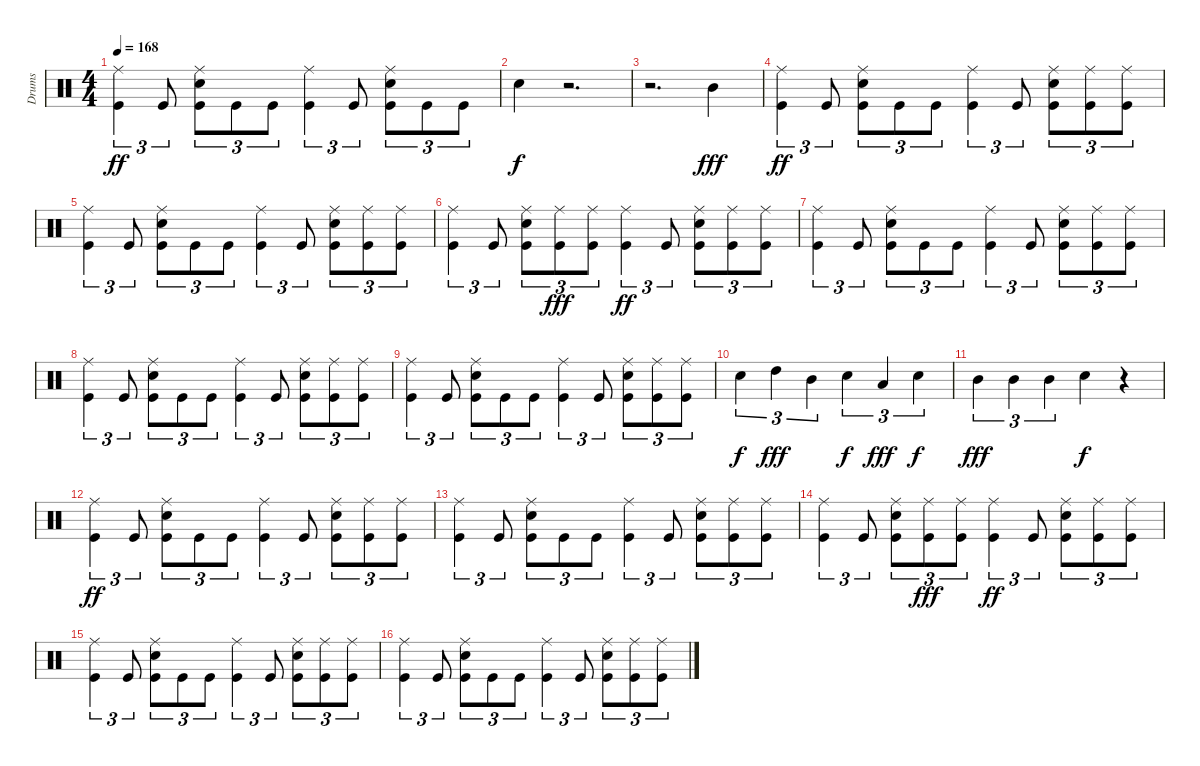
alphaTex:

\track ("Drums" "Drums") {instrument percussion}
\staff {score}
\articulation defaults
\ts (4 4)
\tempo 168
\clef neutral
\ks c
("Ride (middle)" "Kick (hit)").4{tu (3 2) dy ff} "Kick (hit)".8{tu (3 2)} ("Ride (middle)" "Electric Snare (hit)" "Kick (hit)").8{tu (3 2)} "Kick (hit)".8{tu (3 2)} "Kick (hit)".8{tu (3 2)} ("Ride (middle)" "Kick (hit)").4{tu (3 2)} "Kick (hit)".8{tu (3 2)} ("Ride (middle)" "Electric Snare (hit)" "Kick (hit)").8{tu (3 2)} "Kick (hit)".8{tu (3 2)} "Kick (hit)".8{tu (3 2)} |
"Electric Snare (hit)".4{dy f} r.2{d} |
r.2{d} "Mid Tom (hit)".4{dy fff} |
("Ride (middle)" "Kick (hit)").4{tu (3 2) dy ff} "Kick (hit)".8{tu (3 2)} ("Ride (middle)" "Electric Snare (hit)" "Kick (hit)").8{tu (3 2)} "Kick (hit)".8{tu (3 2)} "Kick (hit)".8{tu (3 2)} ("Ride (middle)" "Kick (hit)").4{tu (3 2)} "Kick (hit)".8{tu (3 2)} ("Ride (middle)" "Electric Snare (hit)" "Kick (hit)").8{tu (3 2)} ("Ride (middle)" "Kick (hit)").8{tu (3 2)} ("Ride (middle)" "Kick (hit)").8{tu (3 2)} |
("Ride (middle)" "Kick (hit)").4{tu (3 2)} "Kick (hit)".8{tu (3 2)} ("Ride (middle)" "Electric Snare (hit)" "Kick (hit)").8{tu (3 2)} "Kick (hit)".8{tu (3 2)} "Kick (hit)".8{tu (3 2)} ("Ride (middle)" "Kick (hit)").4{tu (3 2)} "Kick (hit)".8{tu (3 2)} ("Ride (middle)" "Electric Snare (hit)" "Kick (hit)").8{tu (3 2)} ("Ride (middle)" "Kick (hit)").8{tu (3 2)} ("Ride (middle)" "Kick (hit)").8{tu (3 2)} |
("Ride (middle)" "Kick (hit)").4{tu (3 2)} "Kick (hit)".8{tu (3 2)} ("Ride (middle)" "Electric Snare (hit)" "Kick (hit)").8{tu (3 2)} ("Kick (hit)" "Ride (middle)").8{tu (3 2) dy fff} ("Kick (hit)" "Ride (middle)").8{tu (3 2)} ("Ride (middle)" "Kick (hit)").4{tu (3 2) dy ff} "Kick (hit)".8{tu (3 2)} ("Ride (middle)" "Electric Snare (hit)" "Kick (hit)").8{tu (3 2)} ("Ride (middle)" "Kick (hit)").8{tu (3 2)} ("Ride (middle)" "Kick (hit)").8{tu (3 2)} |
("Ride (middle)" "Kick (hit)").4{tu (3 2)} "Kick (hit)".8{tu (3 2)} ("Ride (middle)" "Electric Snare (hit)" "Kick (hit)").8{tu (3 2)} "Kick (hit)".8{tu (3 2)} "Kick (hit)".8{tu (3 2)} ("Ride (middle)" "Kick (hit)").4{tu (3 2)} "Kick (hit)".8{tu (3 2)} ("Ride (middle)" "Electric Snare (hit)" "Kick (hit)").8{tu (3 2)} ("Ride (middle)" "Kick (hit)").8{tu (3 2)} ("Ride (middle)" "Kick (hit)").8{tu (3 2)} |
("Ride (middle)" "Kick (hit)").4{tu (3 2)} "Kick (hit)".8{tu (3 2)} ("Ride (middle)" "Electric Snare (hit)" "Kick (hit)").8{tu (3 2)} "Kick (hit)".8{tu (3 2)} "Kick (hit)".8{tu (3 2)} ("Ride (middle)" "Kick (hit)").4{tu (3 2)} "Kick (hit)".8{tu (3 2)} ("Ride (middle)" "Electric Snare (hit)" "Kick (hit)").8{tu (3 2)} ("Ride (middle)" "Kick (hit)").8{tu (3 2)} ("Ride (middle)" "Kick (hit)").8{tu (3 2)} |
("Ride (middle)" "Kick (hit)").4{tu (3 2)} "Kick (hit)".8{tu (3 2)} ("Ride (middle)" "Electric Snare (hit)" "Kick (hit)").8{tu (3 2)} "Kick (hit)".8{tu (3 2)} "Kick (hit)".8{tu (3 2)} ("Ride (middle)" "Kick (hit)").4{tu (3 2)} "Kick (hit)".8{tu (3 2)} ("Ride (middle)" "Electric Snare (hit)" "Kick (hit)").8{tu (3 2)} ("Ride (middle)" "Kick (hit)").8{tu (3 2)} ("Ride (middle)" "Kick (hit)").8{tu (3 2)} |
"Electric Snare (hit)".4{tu (3 2) dy f} "High Tom (hit)".4{tu (3 2) dy fff} "Mid Tom (hit)".4{tu (3 2)} "Electric Snare (hit)".4{tu (3 2) dy f} "Low Tom (hit)".4{tu (3 2) dy fff} "Electric Snare (hit)".4{tu (3 2) dy f} |
"Mid Tom (hit)".4{tu (3 2) dy fff} "Mid Tom (hit)".4{tu (3 2)} "Mid Tom (hit)".4{tu (3 2)} "Electric Snare (hit)".4{dy f} r.4 |
("Ride (middle)" "Kick (hit)").4{tu (3 2) dy ff} "Kick (hit)".8{tu (3 2)} ("Ride (middle)" "Electric Snare (hit)" "Kick (hit)").8{tu (3 2)} "Kick (hit)".8{tu (3 2)} "Kick (hit)".8{tu (3 2)} ("Ride (middle)" "Kick (hit)").4{tu (3 2)} "Kick (hit)".8{tu (3 2)} ("Ride (middle)" "Electric Snare (hit)" "Kick (hit)").8{tu (3 2)} ("Ride (middle)" "Kick (hit)").8{tu (3 2)} ("Ride (middle)" "Kick (hit)").8{tu (3 2)} |
("Ride (middle)" "Kick (hit)").4{tu (3 2)} "Kick (hit)".8{tu (3 2)} ("Ride (middle)" "Electric Snare (hit)" "Kick (hit)").8{tu (3 2)} "Kick (hit)".8{tu (3 2)} "Kick (hit)".8{tu (3 2)} ("Ride (middle)" "Kick (hit)").4{tu (3 2)} "Kick (hit)".8{tu (3 2)} ("Ride (middle)" "Electric Snare (hit)" "Kick (hit)").8{tu (3 2)} ("Ride (middle)" "Kick (hit)").8{tu (3 2)} ("Ride (middle)" "Kick (hit)").8{tu (3 2)} |
("Ride (middle)" "Kick (hit)").4{tu (3 2)} "Kick (hit)".8{tu (3 2)} ("Ride (middle)" "Electric Snare (hit)" "Kick (hit)").8{tu (3 2)} ("Kick (hit)" "Ride (middle)").8{tu (3 2) dy fff} ("Kick (hit)" "Ride (middle)").8{tu (3 2)} ("Ride (middle)" "Kick (hit)").4{tu (3 2) dy ff} "Kick (hit)".8{tu (3 2)} ("Ride (middle)" "Electric Snare (hit)" "Kick (hit)").8{tu (3 2)} ("Ride (middle)" "Kick (hit)").8{tu (3 2)} ("Ride (middle)" "Kick (hit)").8{tu (3 2)} |
("Ride (middle)" "Kick (hit)").4{tu (3 2)} "Kick (hit)".8{tu (3 2)} ("Ride (middle)" "Electric Snare (hit)" "Kick (hit)").8{tu (3 2)} "Kick (hit)".8{tu (3 2)} "Kick (hit)".8{tu (3 2)} ("Ride (middle)" "Kick (hit)").4{tu (3 2)} "Kick (hit)".8{tu (3 2)} ("Ride (middle)" "Electric Snare (hit)" "Kick (hit)").8{tu (3 2)} ("Ride (middle)" "Kick (hit)").8{tu (3 2)} ("Ride (middle)" "Kick (hit)").8{tu (3 2)} |
("Ride (middle)" "Kick (hit)").4{tu (3 2)} "Kick (hit)".8{tu (3 2)} ("Ride (middle)" "Electric Snare (hit)" "Kick (hit)").8{tu (3 2)} "Kick (hit)".8{tu (3 2)} "Kick (hit)".8{tu (3 2)} ("Ride (middle)" "Kick (hit)").4{tu (3 2)} "Kick (hit)".8{tu (3 2)} ("Ride (middle)" "Electric Snare (hit)" "Kick (hit)").8{tu (3 2)} ("Ride (middle)" "Kick (hit)").8{tu (3 2)} ("Ride (middle)" "Kick (hit)").8{tu (3 2)}
